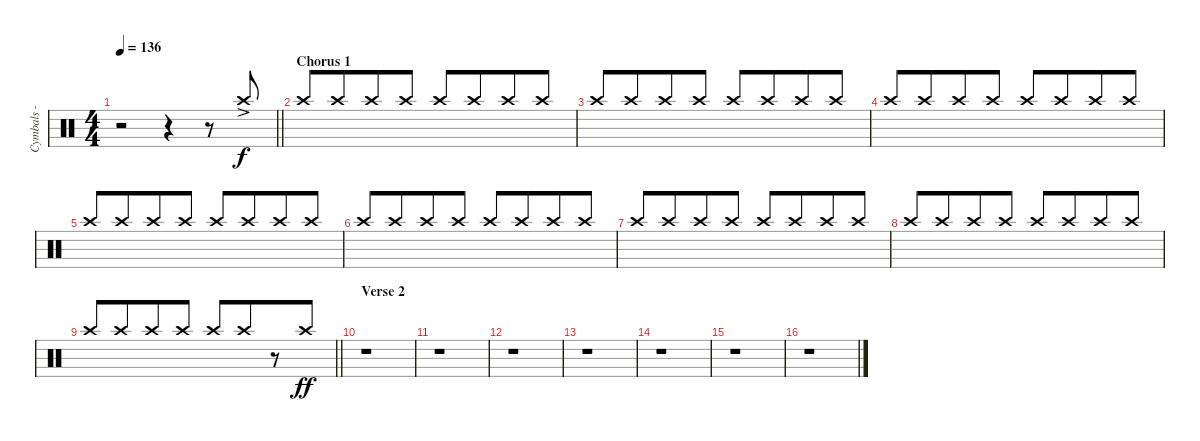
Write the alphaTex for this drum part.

\track ("Cymbals - crash - left" "Cymbals - ") {instrument percussion}
\staff {score}
\articulation defaults
\ts (4 4)
\tempo 136
\clef neutral
\barLineRight lightlight
\ks c
r.2{dy f} r.4{beam Up} r.8 "Crash high (hit)"{ac}.8{beam Up} |
\section ("" "Chorus 1")
"Crash high (hit)".8{beam Up} "Crash high (hit)".8{beam Up beam merge} "Crash high (hit)".8{beam Up} "Crash high (hit)".8{beam Up} "Crash high (hit)".8{beam Up} "Crash high (hit)".8{beam Up beam merge} "Crash high (hit)".8{beam Up} "Crash high (hit)".8{beam Up} |
"Crash high (hit)".8{beam Up} "Crash high (hit)".8{beam Up beam merge} "Crash high (hit)".8{beam Up} "Crash high (hit)".8{beam Up} "Crash high (hit)".8{beam Up} "Crash high (hit)".8{beam Up beam merge} "Crash high (hit)".8{beam Up} "Crash high (hit)".8{beam Up} |
"Crash high (hit)".8{beam Up} "Crash high (hit)".8{beam Up beam merge} "Crash high (hit)".8{beam Up} "Crash high (hit)".8{beam Up} "Crash high (hit)".8{beam Up} "Crash high (hit)".8{beam Up beam merge} "Crash high (hit)".8{beam Up} "Crash high (hit)".8{beam Up} |
"Crash high (hit)".8{beam Up} "Crash high (hit)".8{beam Up beam merge} "Crash high (hit)".8{beam Up} "Crash high (hit)".8{beam Up} "Crash high (hit)".8{beam Up} "Crash high (hit)".8{beam Up beam merge} "Crash high (hit)".8{beam Up} "Crash high (hit)".8{beam Up} |
"Crash high (hit)".8{beam Up} "Crash high (hit)".8{beam Up beam merge} "Crash high (hit)".8{beam Up} "Crash high (hit)".8{beam Up} "Crash high (hit)".8{beam Up} "Crash high (hit)".8{beam Up beam merge} "Crash high (hit)".8{beam Up} "Crash high (hit)".8{beam Up} |
"Crash high (hit)".8{beam Up} "Crash high (hit)".8{beam Up beam merge} "Crash high (hit)".8{beam Up} "Crash high (hit)".8{beam Up} "Crash high (hit)".8{beam Up} "Crash high (hit)".8{beam Up beam merge} "Crash high (hit)".8{beam Up} "Crash high (hit)".8{beam Up} |
"Crash high (hit)".8{beam Up} "Crash high (hit)".8{beam Up beam merge} "Crash high (hit)".8{beam Up} "Crash high (hit)".8{beam Up} "Crash high (hit)".8{beam Up} "Crash high (hit)".8{beam Up beam merge} "Crash high (hit)".8{beam Up} "Crash high (hit)".8{beam Up} |
\barLineRight lightlight "Crash high (hit)".8{beam Up} "Crash high (hit)".8{beam Up beam merge} "Crash high (hit)".8{beam Up} "Crash high (hit)".8{beam Up} "Crash high (hit)".8{beam Up} "Crash high (hit)".8{beam Up beam merge}
r.8 "Crash high (hit)".8{dy ff beam Up} |
\section ("" "Verse 2")
r.1 |
r.1 |
r.1 |
r.1 |
r.1 |
r.1 |
r.1
